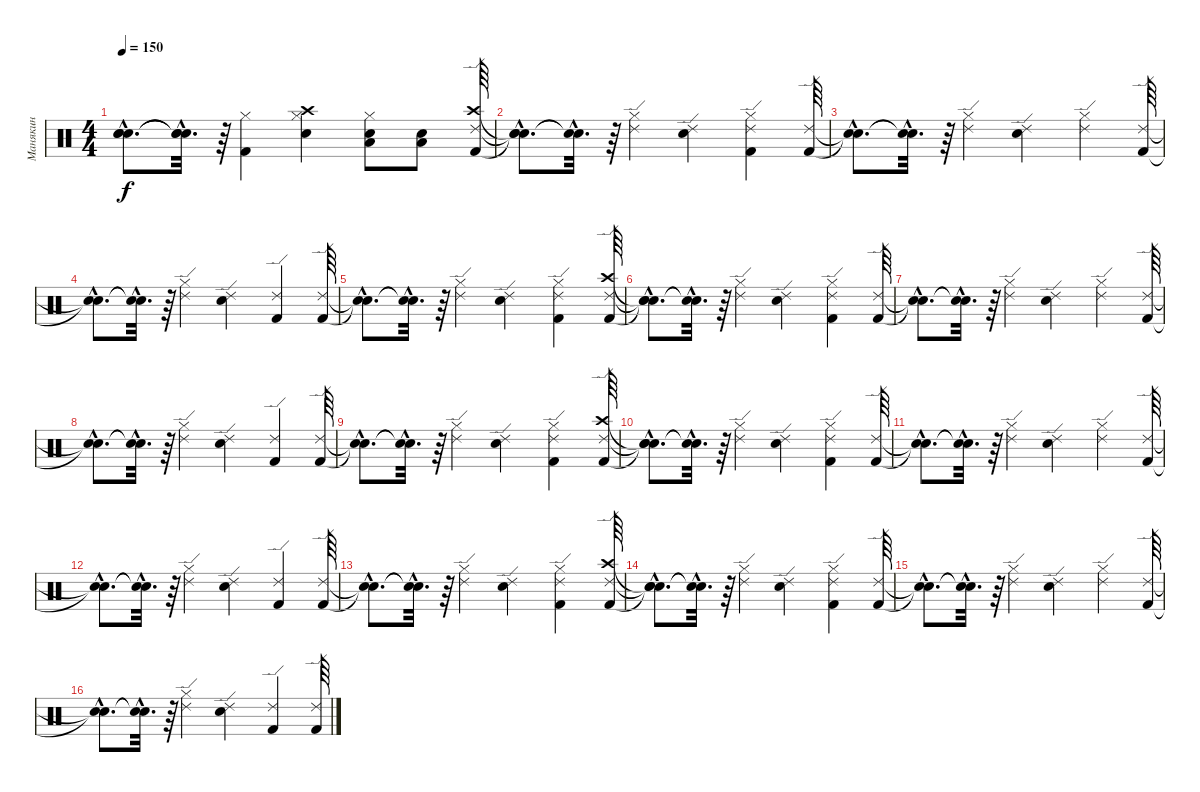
\track ("Манякин" "Манякин") {instrument percussion}
\staff {score}
\articulation defaults
\ts (4 4)
\tempo 150
\clef neutral
\ks c
("Snare (hit)"{hac t} "Snare (hit)"{hac t} "Snare (hit)"{hac t}).8{d dy f} ("Snare (hit)"{hac t} "Snare (hit)"{hac t} "Snare (hit)"{hac t}).32{d} r.64 ("Hi-Hat (closed)" "Kick (hit) 2").4 ("Crash high (hit)" "Hi-Hat (closed)" "Snare (hit) 2").4 ("Low Floor Tom (hit)" "Snare (hit) 2" "Hi-Hat (closed)").8 ("Low Floor Tom (hit)" "Snare (hit) 2").8 ("Ride (edge) 2" "Kick (hit) 2" "Crash high (hit)").64 |
("Snare (hit)"{hac t} "Snare (hit)"{hac t} "Snare (hit)"{hac t}).8{d} ("Snare (hit)"{hac t} "Snare (hit)"{hac t}).32{d} r.64 ("Hi-Hat (closed)" "Ride (edge) 2").4 ("Ride (edge) 2" "Snare (hit) 2").4 ("Hi-Hat (closed)" "Kick (hit) 2" "Ride (edge) 2").4 ("Ride (edge) 2" "Kick (hit) 2").64 |
("Snare (hit)"{hac t} "Snare (hit)"{hac t}).8{d} ("Snare (hit)"{hac t} "Snare (hit)"{hac t}).32{d} r.64 ("Hi-Hat (closed)" "Ride (edge) 2").4 ("Ride (edge) 2" "Snare (hit) 2").4 ("Hi-Hat (closed)" "Ride (edge) 2").4 ("Ride (edge) 2" "Kick (hit) 2").64 |
("Snare (hit)"{hac t} "Snare (hit)"{hac t}).8{d} ("Snare (hit)"{hac t} "Snare (hit)"{hac t}).32{d} r.64 ("Hi-Hat (closed)" "Ride (edge) 2").4 ("Ride (edge) 2" "Snare (hit) 2").4 ("Kick (hit) 2" "Ride (edge) 2").4 ("Ride (edge) 2" "Kick (hit) 2").64 |
("Snare (hit)"{hac t} "Snare (hit)"{hac t}).8{d} ("Snare (hit)"{hac t} "Snare (hit)"{hac t}).32{d} r.64 ("Ride (edge) 2" "Hi-Hat (closed)").4 ("Ride (edge) 2" "Snare (hit) 2").4 ("Hi-Hat (closed)" "Kick (hit) 2" "Ride (edge) 2").4 ("Ride (edge) 2" "Kick (hit) 2" "Crash high (hit)").64 |
("Snare (hit)"{hac t} "Snare (hit)"{hac t} "Snare (hit)"{hac t}).8{d} ("Snare (hit)"{hac t} "Snare (hit)"{hac t}).32{d} r.64 ("Hi-Hat (closed)" "Ride (edge) 2").4 ("Ride (edge) 2" "Snare (hit) 2").4 ("Hi-Hat (closed)" "Kick (hit) 2" "Ride (edge) 2").4 ("Ride (edge) 2" "Kick (hit) 2").64 |
("Snare (hit)"{hac t} "Snare (hit)"{hac t}).8{d} ("Snare (hit)"{hac t} "Snare (hit)"{hac t}).32{d} r.64 ("Hi-Hat (closed)" "Ride (edge) 2").4 ("Ride (edge) 2" "Snare (hit) 2").4 ("Hi-Hat (closed)" "Ride (edge) 2").4 ("Ride (edge) 2" "Kick (hit) 2").64 |
("Snare (hit)"{hac t} "Snare (hit)"{hac t}).8{d} ("Snare (hit)"{hac t} "Snare (hit)"{hac t}).32{d} r.64 ("Hi-Hat (closed)" "Ride (edge) 2").4 ("Ride (edge) 2" "Snare (hit) 2").4 ("Kick (hit) 2" "Ride (edge) 2").4 ("Ride (edge) 2" "Kick (hit) 2").64 |
("Snare (hit)"{hac t} "Snare (hit)"{hac t}).8{d} ("Snare (hit)"{hac t} "Snare (hit)"{hac t}).32{d} r.64 ("Ride (edge) 2" "Hi-Hat (closed)").4 ("Ride (edge) 2" "Snare (hit) 2").4 ("Hi-Hat (closed)" "Kick (hit) 2" "Ride (edge) 2").4 ("Ride (edge) 2" "Kick (hit) 2" "Crash high (hit)").64 |
("Snare (hit)"{hac t} "Snare (hit)"{hac t} "Snare (hit)"{hac t}).8{d} ("Snare (hit)"{hac t} "Snare (hit)"{hac t}).32{d} r.64 ("Hi-Hat (closed)" "Ride (edge) 2").4 ("Ride (edge) 2" "Snare (hit) 2").4 ("Hi-Hat (closed)" "Kick (hit) 2" "Ride (edge) 2").4 ("Ride (edge) 2" "Kick (hit) 2").64 |
("Snare (hit)"{hac t} "Snare (hit)"{hac t}).8{d} ("Snare (hit)"{hac t} "Snare (hit)"{hac t}).32{d} r.64 ("Hi-Hat (closed)" "Ride (edge) 2").4 ("Ride (edge) 2" "Snare (hit) 2").4 ("Hi-Hat (closed)" "Ride (edge) 2").4 ("Ride (edge) 2" "Kick (hit) 2").64 |
("Snare (hit)"{hac t} "Snare (hit)"{hac t}).8{d} ("Snare (hit)"{hac t} "Snare (hit)"{hac t}).32{d} r.64 ("Hi-Hat (closed)" "Ride (edge) 2").4 ("Ride (edge) 2" "Snare (hit) 2").4 ("Kick (hit) 2" "Ride (edge) 2").4 ("Ride (edge) 2" "Kick (hit) 2").64 |
("Snare (hit)"{hac t} "Snare (hit)"{hac t}).8{d} ("Snare (hit)"{hac t} "Snare (hit)"{hac t}).32{d} r.64 ("Ride (edge) 2" "Hi-Hat (closed)").4 ("Ride (edge) 2" "Snare (hit) 2").4 ("Hi-Hat (closed)" "Kick (hit) 2" "Ride (edge) 2").4 ("Ride (edge) 2" "Kick (hit) 2" "Crash high (hit)").64 |
("Snare (hit)"{hac t} "Snare (hit)"{hac t} "Snare (hit)"{hac t}).8{d} ("Snare (hit)"{hac t} "Snare (hit)"{hac t}).32{d} r.64 ("Hi-Hat (closed)" "Ride (edge) 2").4 ("Ride (edge) 2" "Snare (hit) 2").4 ("Hi-Hat (closed)" "Kick (hit) 2" "Ride (edge) 2").4 ("Ride (edge) 2" "Kick (hit) 2").64 |
("Snare (hit)"{hac t} "Snare (hit)"{hac t}).8{d} ("Snare (hit)"{hac t} "Snare (hit)"{hac t}).32{d} r.64 ("Hi-Hat (closed)" "Ride (edge) 2").4 ("Ride (edge) 2" "Snare (hit) 2").4 ("Hi-Hat (closed)" "Ride (edge) 2").4 ("Ride (edge) 2" "Kick (hit) 2").64 |
("Snare (hit)"{hac t} "Snare (hit)"{hac t}).8{d} ("Snare (hit)"{hac t} "Snare (hit)"{hac t}).32{d} r.64 ("Hi-Hat (closed)" "Ride (edge) 2").4 ("Ride (edge) 2" "Snare (hit) 2").4 ("Kick (hit) 2" "Ride (edge) 2").4 ("Ride (edge) 2" "Kick (hit) 2").64
